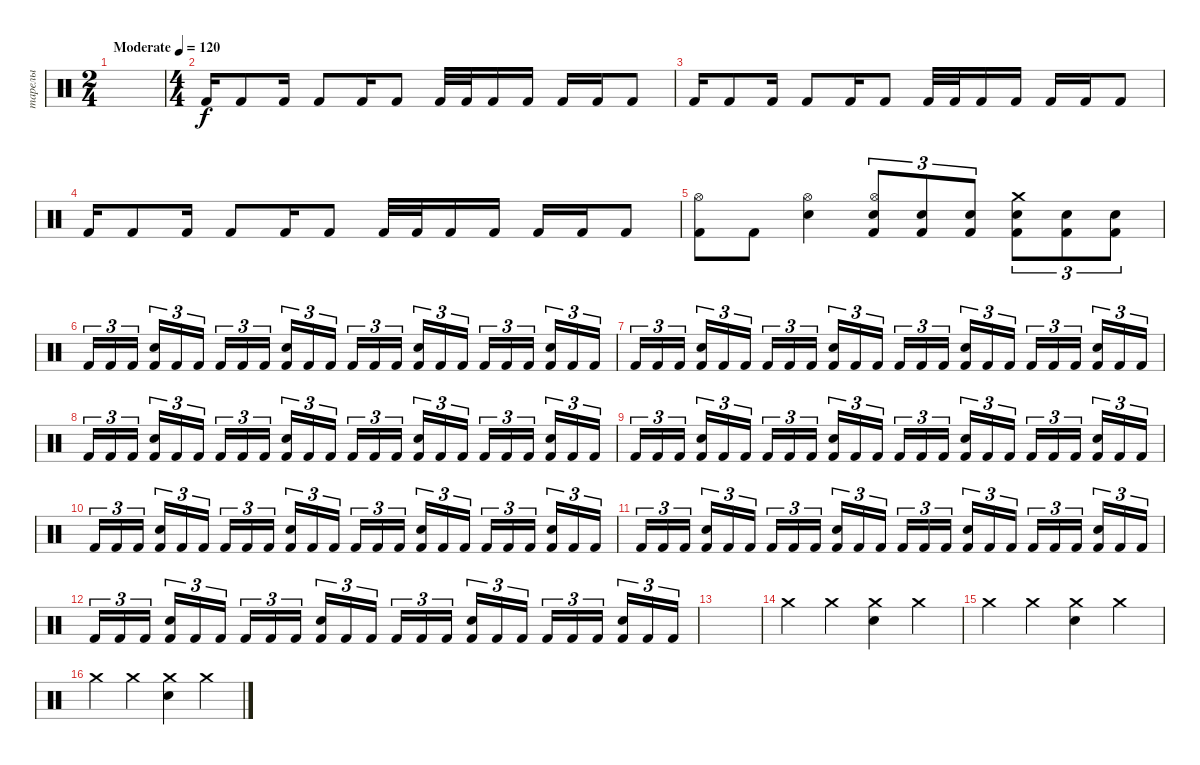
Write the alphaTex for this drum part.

\track ("тарелы" "тарелы") {instrument percussion}
\staff {score}
\articulation defaults
\ts (2 4)
\tempo (120 "Moderate")
\clef neutral
\ks c
|
\ts (4 4)
"Kick (hit) 2".16 "Kick (hit) 2".8 "Kick (hit) 2".16 "Kick (hit) 2".8 "Kick (hit) 2".16 "Kick (hit) 2".8 "Kick (hit) 2".32 "Kick (hit) 2".32 "Kick (hit) 2".16 "Kick (hit) 2".16 "Kick (hit) 2".16 "Kick (hit) 2".16 "Kick (hit) 2".8 |
"Kick (hit) 2".16 "Kick (hit) 2".8 "Kick (hit) 2".16 "Kick (hit) 2".8 "Kick (hit) 2".16 "Kick (hit) 2".8 "Kick (hit) 2".32 "Kick (hit) 2".32 "Kick (hit) 2".16 "Kick (hit) 2".16 "Kick (hit) 2".16 "Kick (hit) 2".16 "Kick (hit) 2".8 |
"Kick (hit) 2".16 "Kick (hit) 2".8 "Kick (hit) 2".16 "Kick (hit) 2".8 "Kick (hit) 2".16 "Kick (hit) 2".8 "Kick (hit) 2".32 "Kick (hit) 2".32 "Kick (hit) 2".16 "Kick (hit) 2".16 "Kick (hit) 2".16 "Kick (hit) 2".16 "Kick (hit) 2".8 |
("Hi-Hat (open)" "Kick (hit) 2").8 "Kick (hit) 2".8 ("Hi-Hat (open)" "Electric Snare (hit)").4 ("Hi-Hat (open)" "Electric Snare (hit)" "Kick (hit) 2").8{tu (3 2)} ("Electric Snare (hit)" "Kick (hit) 2").8{tu (3 2)} ("Electric Snare (hit)" "Kick (hit) 2").8{tu (3 2)} ("Crash medium (hit)" "Electric Snare (hit)" "Kick (hit) 2").8{tu (3 2)} ("Electric Snare (hit)" "Kick (hit) 2").8{tu (3 2)} ("Electric Snare (hit)" "Kick (hit) 2").8{tu (3 2)} |
"Kick (hit) 2".16{tu (3 2)} "Kick (hit) 2".16{tu (3 2)} "Kick (hit) 2".16{tu (3 2) beam splitsecondary} ("Snare (hit) 2" "Kick (hit) 2").16{tu (3 2)} "Kick (hit) 2".16{tu (3 2)} "Kick (hit) 2".16{tu (3 2)} "Kick (hit) 2".16{tu (3 2)} "Kick (hit) 2".16{tu (3 2)} "Kick (hit) 2".16{tu (3 2) beam splitsecondary} ("Snare (hit) 2" "Kick (hit) 2").16{tu (3 2)} "Kick (hit) 2".16{tu (3 2)} "Kick (hit) 2".16{tu (3 2)} "Kick (hit) 2".16{tu (3 2)} "Kick (hit) 2".16{tu (3 2)} "Kick (hit) 2".16{tu (3 2) beam splitsecondary} ("Snare (hit) 2" "Kick (hit) 2").16{tu (3 2)} "Kick (hit) 2".16{tu (3 2)} "Kick (hit) 2".16{tu (3 2)} "Kick (hit) 2".16{tu (3 2)} "Kick (hit) 2".16{tu (3 2)} "Kick (hit) 2".16{tu (3 2) beam splitsecondary} ("Snare (hit) 2" "Kick (hit) 2").16{tu (3 2)} "Kick (hit) 2".16{tu (3 2)} "Kick (hit) 2".16{tu (3 2)} |
"Kick (hit) 2".16{tu (3 2)} "Kick (hit) 2".16{tu (3 2)} "Kick (hit) 2".16{tu (3 2) beam splitsecondary} ("Snare (hit) 2" "Kick (hit) 2").16{tu (3 2)} "Kick (hit) 2".16{tu (3 2)} "Kick (hit) 2".16{tu (3 2)} "Kick (hit) 2".16{tu (3 2)} "Kick (hit) 2".16{tu (3 2)} "Kick (hit) 2".16{tu (3 2) beam splitsecondary} ("Snare (hit) 2" "Kick (hit) 2").16{tu (3 2)} "Kick (hit) 2".16{tu (3 2)} "Kick (hit) 2".16{tu (3 2)} "Kick (hit) 2".16{tu (3 2)} "Kick (hit) 2".16{tu (3 2)} "Kick (hit) 2".16{tu (3 2) beam splitsecondary} ("Snare (hit) 2" "Kick (hit) 2").16{tu (3 2)} "Kick (hit) 2".16{tu (3 2)} "Kick (hit) 2".16{tu (3 2)} "Kick (hit) 2".16{tu (3 2)} "Kick (hit) 2".16{tu (3 2)} "Kick (hit) 2".16{tu (3 2) beam splitsecondary} ("Snare (hit) 2" "Kick (hit) 2").16{tu (3 2)} "Kick (hit) 2".16{tu (3 2)} "Kick (hit) 2".16{tu (3 2)} |
"Kick (hit) 2".16{tu (3 2)} "Kick (hit) 2".16{tu (3 2)} "Kick (hit) 2".16{tu (3 2) beam splitsecondary} ("Snare (hit) 2" "Kick (hit) 2").16{tu (3 2)} "Kick (hit) 2".16{tu (3 2)} "Kick (hit) 2".16{tu (3 2)} "Kick (hit) 2".16{tu (3 2)} "Kick (hit) 2".16{tu (3 2)} "Kick (hit) 2".16{tu (3 2) beam splitsecondary} ("Snare (hit) 2" "Kick (hit) 2").16{tu (3 2)} "Kick (hit) 2".16{tu (3 2)} "Kick (hit) 2".16{tu (3 2)} "Kick (hit) 2".16{tu (3 2)} "Kick (hit) 2".16{tu (3 2)} "Kick (hit) 2".16{tu (3 2) beam splitsecondary} ("Snare (hit) 2" "Kick (hit) 2").16{tu (3 2)} "Kick (hit) 2".16{tu (3 2)} "Kick (hit) 2".16{tu (3 2)} "Kick (hit) 2".16{tu (3 2)} "Kick (hit) 2".16{tu (3 2)} "Kick (hit) 2".16{tu (3 2) beam splitsecondary} ("Snare (hit) 2" "Kick (hit) 2").16{tu (3 2)} "Kick (hit) 2".16{tu (3 2)} "Kick (hit) 2".16{tu (3 2)} |
"Kick (hit) 2".16{tu (3 2)} "Kick (hit) 2".16{tu (3 2)} "Kick (hit) 2".16{tu (3 2) beam splitsecondary} ("Snare (hit) 2" "Kick (hit) 2").16{tu (3 2)} "Kick (hit) 2".16{tu (3 2)} "Kick (hit) 2".16{tu (3 2)} "Kick (hit) 2".16{tu (3 2)} "Kick (hit) 2".16{tu (3 2)} "Kick (hit) 2".16{tu (3 2) beam splitsecondary} ("Snare (hit) 2" "Kick (hit) 2").16{tu (3 2)} "Kick (hit) 2".16{tu (3 2)} "Kick (hit) 2".16{tu (3 2)} "Kick (hit) 2".16{tu (3 2)} "Kick (hit) 2".16{tu (3 2)} "Kick (hit) 2".16{tu (3 2) beam splitsecondary} ("Snare (hit) 2" "Kick (hit) 2").16{tu (3 2)} "Kick (hit) 2".16{tu (3 2)} "Kick (hit) 2".16{tu (3 2)} "Kick (hit) 2".16{tu (3 2)} "Kick (hit) 2".16{tu (3 2)} "Kick (hit) 2".16{tu (3 2) beam splitsecondary} ("Snare (hit) 2" "Kick (hit) 2").16{tu (3 2)} "Kick (hit) 2".16{tu (3 2)} "Kick (hit) 2".16{tu (3 2)} |
"Kick (hit) 2".16{tu (3 2)} "Kick (hit) 2".16{tu (3 2)} "Kick (hit) 2".16{tu (3 2) beam splitsecondary} ("Snare (hit) 2" "Kick (hit) 2").16{tu (3 2)} "Kick (hit) 2".16{tu (3 2)} "Kick (hit) 2".16{tu (3 2)} "Kick (hit) 2".16{tu (3 2)} "Kick (hit) 2".16{tu (3 2)} "Kick (hit) 2".16{tu (3 2) beam splitsecondary} ("Snare (hit) 2" "Kick (hit) 2").16{tu (3 2)} "Kick (hit) 2".16{tu (3 2)} "Kick (hit) 2".16{tu (3 2)} "Kick (hit) 2".16{tu (3 2)} "Kick (hit) 2".16{tu (3 2)} "Kick (hit) 2".16{tu (3 2) beam splitsecondary} ("Snare (hit) 2" "Kick (hit) 2").16{tu (3 2)} "Kick (hit) 2".16{tu (3 2)} "Kick (hit) 2".16{tu (3 2)} "Kick (hit) 2".16{tu (3 2)} "Kick (hit) 2".16{tu (3 2)} "Kick (hit) 2".16{tu (3 2) beam splitsecondary} ("Snare (hit) 2" "Kick (hit) 2").16{tu (3 2)} "Kick (hit) 2".16{tu (3 2)} "Kick (hit) 2".16{tu (3 2)} |
"Kick (hit) 2".16{tu (3 2)} "Kick (hit) 2".16{tu (3 2)} "Kick (hit) 2".16{tu (3 2) beam splitsecondary} ("Snare (hit) 2" "Kick (hit) 2").16{tu (3 2)} "Kick (hit) 2".16{tu (3 2)} "Kick (hit) 2".16{tu (3 2)} "Kick (hit) 2".16{tu (3 2)} "Kick (hit) 2".16{tu (3 2)} "Kick (hit) 2".16{tu (3 2) beam splitsecondary} ("Snare (hit) 2" "Kick (hit) 2").16{tu (3 2)} "Kick (hit) 2".16{tu (3 2)} "Kick (hit) 2".16{tu (3 2)} "Kick (hit) 2".16{tu (3 2)} "Kick (hit) 2".16{tu (3 2)} "Kick (hit) 2".16{tu (3 2) beam splitsecondary} ("Snare (hit) 2" "Kick (hit) 2").16{tu (3 2)} "Kick (hit) 2".16{tu (3 2)} "Kick (hit) 2".16{tu (3 2)} "Kick (hit) 2".16{tu (3 2)} "Kick (hit) 2".16{tu (3 2)} "Kick (hit) 2".16{tu (3 2) beam splitsecondary} ("Snare (hit) 2" "Kick (hit) 2").16{tu (3 2)} "Kick (hit) 2".16{tu (3 2)} "Kick (hit) 2".16{tu (3 2)} |
"Kick (hit) 2".16{tu (3 2)} "Kick (hit) 2".16{tu (3 2)} "Kick (hit) 2".16{tu (3 2) beam splitsecondary} ("Snare (hit) 2" "Kick (hit) 2").16{tu (3 2)} "Kick (hit) 2".16{tu (3 2)} "Kick (hit) 2".16{tu (3 2)} "Kick (hit) 2".16{tu (3 2)} "Kick (hit) 2".16{tu (3 2)} "Kick (hit) 2".16{tu (3 2) beam splitsecondary} ("Snare (hit) 2" "Kick (hit) 2").16{tu (3 2)} "Kick (hit) 2".16{tu (3 2)} "Kick (hit) 2".16{tu (3 2)} "Kick (hit) 2".16{tu (3 2)} "Kick (hit) 2".16{tu (3 2)} "Kick (hit) 2".16{tu (3 2) beam splitsecondary} ("Snare (hit) 2" "Kick (hit) 2").16{tu (3 2)} "Kick (hit) 2".16{tu (3 2)} "Kick (hit) 2".16{tu (3 2)} "Kick (hit) 2".16{tu (3 2)} "Kick (hit) 2".16{tu (3 2)} "Kick (hit) 2".16{tu (3 2) beam splitsecondary} ("Snare (hit) 2" "Kick (hit) 2").16{tu (3 2)} "Kick (hit) 2".16{tu (3 2)} "Kick (hit) 2".16{tu (3 2)} |
|
"Crash medium (hit)".4 "Crash medium (hit)".4 ("Crash medium (hit)" "Snare (hit) 2").4 "Crash medium (hit)".4 |
"Crash medium (hit)".4 "Crash medium (hit)".4 ("Crash medium (hit)" "Snare (hit) 2").4 "Crash medium (hit)".4 |
"Crash medium (hit)".4 "Crash medium (hit)".4 ("Crash medium (hit)" "Snare (hit) 2").4 "Crash medium (hit)".4
